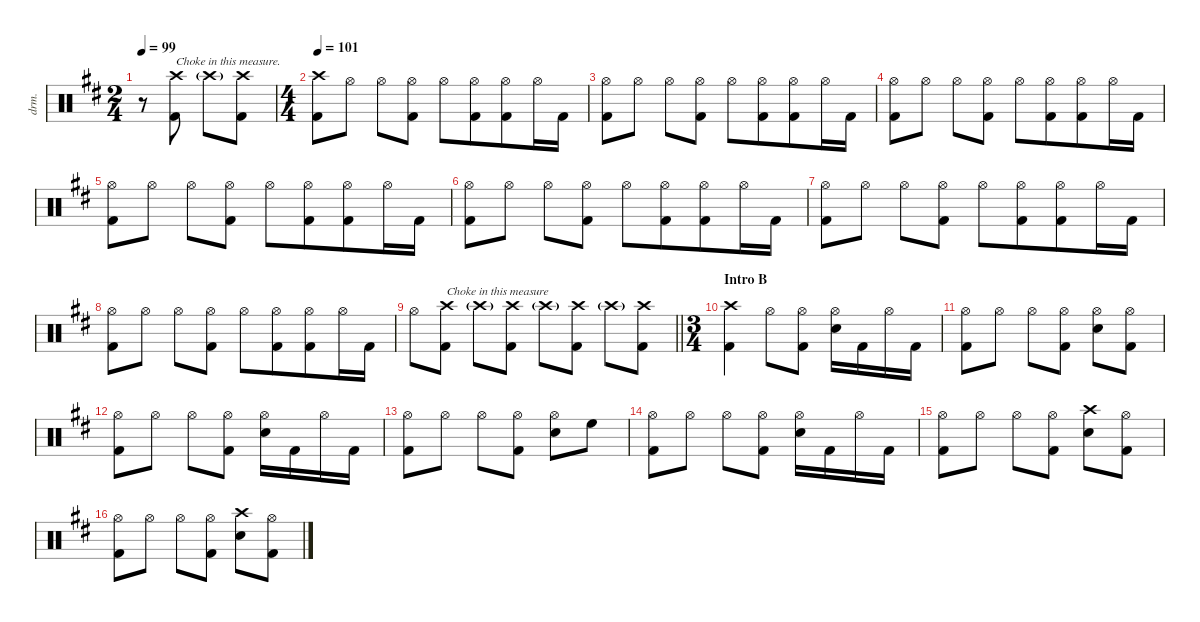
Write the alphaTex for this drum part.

\defaultSystemsLayout 4
\hideDynamics
\bracketExtendMode nobrackets
\otherSystemsTrackNameOrientation horizontal
\track ("Lars Ulrich" "drm.") {defaultSystemsLayout 4 instrument percussion}
\staff {score}
\articulation defaults
\ts (2 4)
\beaming (8 2 2)
\tempo 99
\clef neutral
\ks bminor
r.8{dy f} ("Crash high (hit)"{acc forcenatural} "Kick (hit) 2"{acc forcenatural}).8{txt "Choke in this measure."} "Crash high (hit)"{g acc forcenatural}.8{dy pp} ("Crash high (hit)"{acc forcenatural} "Kick (hit) 2"{acc forcenatural}).8{dy f} |
\ts (4 4)
\beaming (8 2 2 4)
\tempo 101
("Crash high (hit)"{acc forcenatural} "Kick (hit) 2"{acc forcenatural}).8 "Hi-Hat (open)"{acc forcenatural}.8{dy mp} "Hi-Hat (open)"{acc forcenatural}.8 ("Hi-Hat (open)"{acc forcenatural} "Kick (hit) 2"{acc forcenatural}).8 "Hi-Hat (open)"{acc forcenatural}.8 ("Hi-Hat (open)"{acc forcenatural} "Kick (hit) 2"{acc forcenatural}).8 ("Hi-Hat (open)"{acc forcenatural} "Kick (hit) 2"{acc forcenatural}).8 "Hi-Hat (open)"{acc forcenatural}.16 "Kick (hit) 2"{acc forcenatural}.16{dy fff} |
("Hi-Hat (open)"{acc forcenatural} "Kick (hit) 2"{acc forcenatural}).8{dy mp} "Hi-Hat (open)"{acc forcenatural}.8 "Hi-Hat (open)"{acc forcenatural}.8 ("Hi-Hat (open)"{acc forcenatural} "Kick (hit) 2"{acc forcenatural}).8 "Hi-Hat (open)"{acc forcenatural}.8 ("Hi-Hat (open)"{acc forcenatural} "Kick (hit) 2"{acc forcenatural}).8 ("Hi-Hat (open)"{acc forcenatural} "Kick (hit) 2"{acc forcenatural}).8 "Hi-Hat (open)"{acc forcenatural}.16 "Kick (hit) 2"{acc forcenatural}.16{dy fff} |
("Hi-Hat (open)"{acc forcenatural} "Kick (hit) 2"{acc forcenatural}).8{dy mp} "Hi-Hat (open)"{acc forcenatural}.8 "Hi-Hat (open)"{acc forcenatural}.8 ("Hi-Hat (open)"{acc forcenatural} "Kick (hit) 2"{acc forcenatural}).8 "Hi-Hat (open)"{acc forcenatural}.8 ("Hi-Hat (open)"{acc forcenatural} "Kick (hit) 2"{acc forcenatural}).8 ("Hi-Hat (open)"{acc forcenatural} "Kick (hit) 2"{acc forcenatural}).8 "Hi-Hat (open)"{acc forcenatural}.16 "Kick (hit) 2"{acc forcenatural}.16{dy fff} |
("Hi-Hat (open)"{acc forcenatural} "Kick (hit) 2"{acc forcenatural}).8{dy mp} "Hi-Hat (open)"{acc forcenatural}.8 "Hi-Hat (open)"{acc forcenatural}.8 ("Hi-Hat (open)"{acc forcenatural} "Kick (hit) 2"{acc forcenatural}).8 "Hi-Hat (open)"{acc forcenatural}.8 ("Hi-Hat (open)"{acc forcenatural} "Kick (hit) 2"{acc forcenatural}).8 ("Hi-Hat (open)"{acc forcenatural} "Kick (hit) 2"{acc forcenatural}).8 "Hi-Hat (open)"{acc forcenatural}.16 "Kick (hit) 2"{acc forcenatural}.16{dy fff} |
("Hi-Hat (open)"{acc forcenatural} "Kick (hit) 2"{acc forcenatural}).8{dy mp} "Hi-Hat (open)"{acc forcenatural}.8 "Hi-Hat (open)"{acc forcenatural}.8 ("Hi-Hat (open)"{acc forcenatural} "Kick (hit) 2"{acc forcenatural}).8 "Hi-Hat (open)"{acc forcenatural}.8 ("Hi-Hat (open)"{acc forcenatural} "Kick (hit) 2"{acc forcenatural}).8 ("Hi-Hat (open)"{acc forcenatural} "Kick (hit) 2"{acc forcenatural}).8 "Hi-Hat (open)"{acc forcenatural}.16 "Kick (hit) 2"{acc forcenatural}.16{dy fff} |
("Hi-Hat (open)"{acc forcenatural} "Kick (hit) 2"{acc forcenatural}).8{dy mp} "Hi-Hat (open)"{acc forcenatural}.8 "Hi-Hat (open)"{acc forcenatural}.8 ("Hi-Hat (open)"{acc forcenatural} "Kick (hit) 2"{acc forcenatural}).8 "Hi-Hat (open)"{acc forcenatural}.8 ("Hi-Hat (open)"{acc forcenatural} "Kick (hit) 2"{acc forcenatural}).8 ("Hi-Hat (open)"{acc forcenatural} "Kick (hit) 2"{acc forcenatural}).8 "Hi-Hat (open)"{acc forcenatural}.16 "Kick (hit) 2"{acc forcenatural}.16{dy fff} |
("Hi-Hat (open)"{acc forcenatural} "Kick (hit) 2"{acc forcenatural}).8{dy mp} "Hi-Hat (open)"{acc forcenatural}.8 "Hi-Hat (open)"{acc forcenatural}.8 ("Hi-Hat (open)"{acc forcenatural} "Kick (hit) 2"{acc forcenatural}).8 "Hi-Hat (open)"{acc forcenatural}.8 ("Hi-Hat (open)"{acc forcenatural} "Kick (hit) 2"{acc forcenatural}).8 ("Hi-Hat (open)"{acc forcenatural} "Kick (hit) 2"{acc forcenatural}).8 "Hi-Hat (open)"{acc forcenatural}.16 "Kick (hit) 2"{acc forcenatural}.16{dy fff} |
\beaming (8 2 2 2 2)
\barLineRight lightlight "Hi-Hat (open)"{acc forcenatural}.8{dy mp}
("Crash high (hit)"{acc forcenatural} "Kick (hit) 2"{acc forcenatural}).8{txt "Choke in this measure" dy f} "Crash high (hit)"{g acc forcenatural}.8{dy pp} ("Crash high (hit)"{acc forcenatural} "Kick (hit) 2"{acc forcenatural}).8{dy f} "Crash high (hit)"{g acc forcenatural}.8{dy pp} ("Crash high (hit)"{acc forcenatural} "Kick (hit) 2"{acc forcenatural}).8{dy f} "Crash high (hit)"{g acc forcenatural}.8{dy pp} ("Crash high (hit)"{acc forcenatural} "Kick (hit) 2"{acc forcenatural}).8{dy f} |
\ts (3 4)
\beaming (8 2 2 2)
\section ("" "Intro B")
("Crash high (hit)"{acc forcenatural} "Kick (hit) 2"{acc forcenatural}).4 "Hi-Hat (open)"{acc forcenatural}.8{dy mf} ("Hi-Hat (open)"{acc forcenatural} "Kick (hit) 2"{acc forcenatural}).8 ("Hi-Hat (open)"{acc forcenatural} "Snare (hit) 2"{acc forcenatural}).16 "Kick (hit) 2"{acc forcenatural}.16{dy fff} "Hi-Hat (open)"{acc forcenatural}.16{dy mf} "Kick (hit) 2"{acc forcenatural}.16{dy fff} |
("Hi-Hat (open)"{acc forcenatural} "Kick (hit) 2"{acc forcenatural}).8{dy mf} "Hi-Hat (open)"{acc forcenatural}.8 "Hi-Hat (open)"{acc forcenatural}.8 ("Hi-Hat (open)"{acc forcenatural} "Kick (hit) 2"{acc forcenatural}).8 ("Hi-Hat (open)"{acc forcenatural} "Snare (hit) 2"{acc forcenatural}).8 ("Hi-Hat (open)"{acc forcenatural} "Kick (hit) 2"{acc forcenatural}).8 |
("Hi-Hat (open)"{acc forcenatural} "Kick (hit) 2"{acc forcenatural}).8 "Hi-Hat (open)"{acc forcenatural}.8 "Hi-Hat (open)"{acc forcenatural}.8 ("Hi-Hat (open)"{acc forcenatural} "Kick (hit) 2"{acc forcenatural}).8 ("Hi-Hat (open)"{acc forcenatural} "Snare (hit) 2"{acc forcenatural}).16 "Kick (hit) 2"{acc forcenatural}.16{dy fff} "Hi-Hat (open)"{acc forcenatural}.16{dy mf} "Kick (hit) 2"{acc forcenatural}.16{dy fff} |
("Hi-Hat (open)"{acc forcenatural} "Kick (hit) 2"{acc forcenatural}).8{dy mf} "Hi-Hat (open)"{acc forcenatural}.8 "Hi-Hat (open)"{acc forcenatural}.8 ("Hi-Hat (open)"{acc forcenatural} "Kick (hit) 2"{acc forcenatural}).8 ("Hi-Hat (open)"{acc forcenatural} "Snare (hit) 2"{acc forcenatural}).8 "High Floor Tom (hit)"{acc forcenatural}.8{dy fff} |
("Hi-Hat (open)"{acc forcenatural} "Kick (hit) 2"{acc forcenatural}).8{dy mf} "Hi-Hat (open)"{acc forcenatural}.8 "Hi-Hat (open)"{acc forcenatural}.8 ("Hi-Hat (open)"{acc forcenatural} "Kick (hit) 2"{acc forcenatural}).8 ("Hi-Hat (open)"{acc forcenatural} "Snare (hit) 2"{acc forcenatural}).16 "Kick (hit) 2"{acc forcenatural}.16{dy fff} "Hi-Hat (open)"{acc forcenatural}.16{dy mf} "Kick (hit) 2"{acc forcenatural}.16{dy fff} |
("Hi-Hat (open)"{acc forcenatural} "Kick (hit) 2"{acc forcenatural}).8{dy mf} "Hi-Hat (open)"{acc forcenatural}.8 "Hi-Hat (open)"{acc forcenatural}.8 ("Hi-Hat (open)"{acc forcenatural} "Kick (hit) 2"{acc forcenatural}).8 ("Crash high (hit)"{acc forcenatural} "Snare (hit) 2"{acc forcenatural}).8{dy f} ("Hi-Hat (open)"{acc forcenatural} "Kick (hit) 2"{acc forcenatural}).8{dy mf} |
("Hi-Hat (open)"{acc forcenatural} "Kick (hit) 2"{acc forcenatural}).8 "Hi-Hat (open)"{acc forcenatural}.8 "Hi-Hat (open)"{acc forcenatural}.8 ("Hi-Hat (open)"{acc forcenatural} "Kick (hit) 2"{acc forcenatural}).8 ("Crash high (hit)"{acc forcenatural} "Snare (hit) 2"{acc forcenatural}).8{dy f} ("Hi-Hat (open)"{acc forcenatural} "Kick (hit) 2"{acc forcenatural}).8{dy mf}
